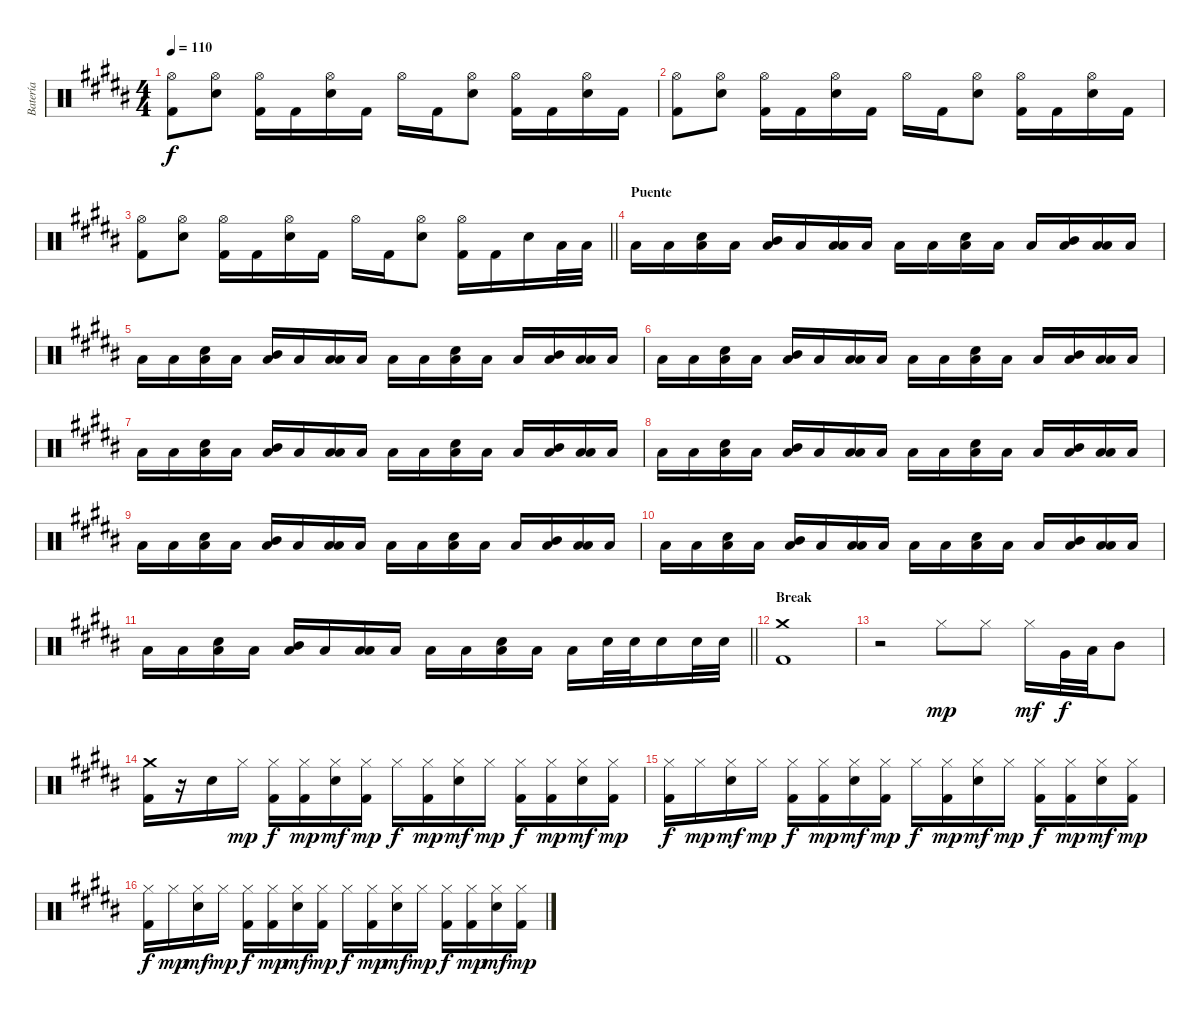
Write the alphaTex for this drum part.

\track ("Batería" "Batería") {instrument percussion}
\staff {score}
\articulation defaults
\ts (4 4)
\tempo 110
\clef neutral
\ks b
("Hi-Hat (open)" "Kick (hit) 2").8{dy f} ("Hi-Hat (open)" "Electric Snare (hit)").8 ("Hi-Hat (open)" "Kick (hit) 2").16 "Kick (hit) 2".16 ("Hi-Hat (open)" "Electric Snare (hit)").16 "Kick (hit) 2".16 "Hi-Hat (open)".16 "Kick (hit) 2".16 ("Hi-Hat (open)" "Electric Snare (hit)").8 ("Hi-Hat (open)" "Kick (hit) 2").16 "Kick (hit) 2".16 ("Hi-Hat (open)" "Electric Snare (hit)").16 "Kick (hit) 2".16 |
("Hi-Hat (open)" "Kick (hit) 2").8 ("Hi-Hat (open)" "Electric Snare (hit)").8 ("Hi-Hat (open)" "Kick (hit) 2").16 "Kick (hit) 2".16 ("Hi-Hat (open)" "Electric Snare (hit)").16 "Kick (hit) 2".16 "Hi-Hat (open)".16 "Kick (hit) 2".16 ("Hi-Hat (open)" "Electric Snare (hit)").8 ("Hi-Hat (open)" "Kick (hit) 2").16 "Kick (hit) 2".16 ("Hi-Hat (open)" "Electric Snare (hit)").16 "Kick (hit) 2".16 |
\barLineRight lightlight
("Hi-Hat (open)" "Kick (hit) 2").8 ("Hi-Hat (open)" "Electric Snare (hit)").8 ("Hi-Hat (open)" "Kick (hit) 2").16 "Kick (hit) 2".16 ("Hi-Hat (open)" "Electric Snare (hit)").16 "Kick (hit) 2".16 "Hi-Hat (open)".16 "Kick (hit) 2".16 ("Hi-Hat (open)" "Electric Snare (hit)").8 ("Hi-Hat (open)" "Kick (hit) 2").16 "Kick (hit) 2".16 "Electric Snare (hit)".16 "Low Floor Tom (hit)".32 "Low Floor Tom (hit)".32 |
\section ("" "Puente")
"Low Floor Tom (hit)".16 "Low Floor Tom (hit)".16 ("Electric Snare (hit)" "Low Floor Tom (hit)").16 "Low Floor Tom (hit)".16 ("Mid Tom (hit)" "Low Floor Tom (hit)").16 "Low Floor Tom (hit)".16 ("Low Tom (hit)" "Low Floor Tom (hit)").16 "Low Floor Tom (hit)".16 "Low Floor Tom (hit)".16 "Low Floor Tom (hit)".16 ("Electric Snare (hit)" "Low Floor Tom (hit)").16 "Low Floor Tom (hit)".16 "Low Floor Tom (hit)".16 ("Mid Tom (hit)" "Low Floor Tom (hit)").16 ("Low Tom (hit)" "Low Floor Tom (hit)").16 "Low Floor Tom (hit)".16 |
"Low Floor Tom (hit)".16 "Low Floor Tom (hit)".16 ("Electric Snare (hit)" "Low Floor Tom (hit)").16 "Low Floor Tom (hit)".16 ("Mid Tom (hit)" "Low Floor Tom (hit)").16 "Low Floor Tom (hit)".16 ("Low Tom (hit)" "Low Floor Tom (hit)").16 "Low Floor Tom (hit)".16 "Low Floor Tom (hit)".16 "Low Floor Tom (hit)".16 ("Electric Snare (hit)" "Low Floor Tom (hit)").16 "Low Floor Tom (hit)".16 "Low Floor Tom (hit)".16 ("Mid Tom (hit)" "Low Floor Tom (hit)").16 ("Low Tom (hit)" "Low Floor Tom (hit)").16 "Low Floor Tom (hit)".16 |
"Low Floor Tom (hit)".16 "Low Floor Tom (hit)".16 ("Electric Snare (hit)" "Low Floor Tom (hit)").16 "Low Floor Tom (hit)".16 ("Mid Tom (hit)" "Low Floor Tom (hit)").16 "Low Floor Tom (hit)".16 ("Low Tom (hit)" "Low Floor Tom (hit)").16 "Low Floor Tom (hit)".16 "Low Floor Tom (hit)".16 "Low Floor Tom (hit)".16 ("Electric Snare (hit)" "Low Floor Tom (hit)").16 "Low Floor Tom (hit)".16 "Low Floor Tom (hit)".16 ("Mid Tom (hit)" "Low Floor Tom (hit)").16 ("Low Tom (hit)" "Low Floor Tom (hit)").16 "Low Floor Tom (hit)".16 |
"Low Floor Tom (hit)".16 "Low Floor Tom (hit)".16 ("Electric Snare (hit)" "Low Floor Tom (hit)").16 "Low Floor Tom (hit)".16 ("Mid Tom (hit)" "Low Floor Tom (hit)").16 "Low Floor Tom (hit)".16 ("Low Tom (hit)" "Low Floor Tom (hit)").16 "Low Floor Tom (hit)".16 "Low Floor Tom (hit)".16 "Low Floor Tom (hit)".16 ("Electric Snare (hit)" "Low Floor Tom (hit)").16 "Low Floor Tom (hit)".16 "Low Floor Tom (hit)".16 ("Mid Tom (hit)" "Low Floor Tom (hit)").16 ("Low Tom (hit)" "Low Floor Tom (hit)").16 "Low Floor Tom (hit)".16 |
"Low Floor Tom (hit)".16 "Low Floor Tom (hit)".16 ("Electric Snare (hit)" "Low Floor Tom (hit)").16 "Low Floor Tom (hit)".16 ("Mid Tom (hit)" "Low Floor Tom (hit)").16 "Low Floor Tom (hit)".16 ("Low Tom (hit)" "Low Floor Tom (hit)").16 "Low Floor Tom (hit)".16 "Low Floor Tom (hit)".16 "Low Floor Tom (hit)".16 ("Electric Snare (hit)" "Low Floor Tom (hit)").16 "Low Floor Tom (hit)".16 "Low Floor Tom (hit)".16 ("Mid Tom (hit)" "Low Floor Tom (hit)").16 ("Low Tom (hit)" "Low Floor Tom (hit)").16 "Low Floor Tom (hit)".16 |
"Low Floor Tom (hit)".16 "Low Floor Tom (hit)".16 ("Electric Snare (hit)" "Low Floor Tom (hit)").16 "Low Floor Tom (hit)".16 ("Mid Tom (hit)" "Low Floor Tom (hit)").16 "Low Floor Tom (hit)".16 ("Low Tom (hit)" "Low Floor Tom (hit)").16 "Low Floor Tom (hit)".16 "Low Floor Tom (hit)".16 "Low Floor Tom (hit)".16 ("Electric Snare (hit)" "Low Floor Tom (hit)").16 "Low Floor Tom (hit)".16 "Low Floor Tom (hit)".16 ("Mid Tom (hit)" "Low Floor Tom (hit)").16 ("Low Tom (hit)" "Low Floor Tom (hit)").16 "Low Floor Tom (hit)".16 |
"Low Floor Tom (hit)".16 "Low Floor Tom (hit)".16 ("Electric Snare (hit)" "Low Floor Tom (hit)").16 "Low Floor Tom (hit)".16 ("Mid Tom (hit)" "Low Floor Tom (hit)").16 "Low Floor Tom (hit)".16 ("Low Tom (hit)" "Low Floor Tom (hit)").16 "Low Floor Tom (hit)".16 "Low Floor Tom (hit)".16 "Low Floor Tom (hit)".16 ("Electric Snare (hit)" "Low Floor Tom (hit)").16 "Low Floor Tom (hit)".16 "Low Floor Tom (hit)".16 ("Mid Tom (hit)" "Low Floor Tom (hit)").16 ("Low Tom (hit)" "Low Floor Tom (hit)").16 "Low Floor Tom (hit)".16 |
\barLineRight lightlight "Low Floor Tom (hit)".16 "Low Floor Tom (hit)".16
("Electric Snare (hit)" "Low Floor Tom (hit)").16 "Low Floor Tom (hit)".16 ("Mid Tom (hit)" "Low Floor Tom (hit)").16 "Low Floor Tom (hit)".16 ("Low Tom (hit)" "Low Floor Tom (hit)").16 "Low Floor Tom (hit)".16 "Low Floor Tom (hit)".16 "Low Floor Tom (hit)".16 ("Electric Snare (hit)" "Low Floor Tom (hit)").16 "Low Floor Tom (hit)".16 "Low Floor Tom (hit)".16 "Electric Snare (hit)".32 "Electric Snare (hit)".32 "Electric Snare (hit)".16 "Electric Snare (hit)".32 "Electric Snare (hit)".32 |
\section ("" "Break")
("Crash medium (hit)" "Kick (hit) 2").1 |
r.2 "Hi-Hat (closed)".8{dy mp} "Hi-Hat (closed)".8 "Hi-Hat (closed)".16{dy mf} "Very Low Tom (hit)".32{dy f} "Low Tom (hit)".32 "Mid Tom (hit)".8 |
("Crash medium (hit)" "Kick (hit) 2").16 r.16 "Electric Snare (hit)".16 "Hi-Hat (closed)".16{dy mp} ("Hi-Hat (closed)" "Kick (hit) 2").16{dy f} ("Hi-Hat (closed)" "Kick (hit) 2").16{dy mp} ("Hi-Hat (closed)" "Electric Snare (hit)").16{dy mf} ("Hi-Hat (closed)" "Kick (hit) 2").16{dy mp} "Hi-Hat (closed)".16{dy f} ("Hi-Hat (closed)" "Kick (hit) 2").16{dy mp} ("Hi-Hat (closed)" "Electric Snare (hit)").16{dy mf} "Hi-Hat (closed)".16{dy mp} ("Hi-Hat (closed)" "Kick (hit) 2").16{dy f} ("Hi-Hat (closed)" "Kick (hit) 2").16{dy mp} ("Hi-Hat (closed)" "Electric Snare (hit)").16{dy mf} ("Hi-Hat (closed)" "Kick (hit) 2").16{dy mp} |
("Hi-Hat (closed)" "Kick (hit) 2").16{dy f} "Hi-Hat (closed)".16{dy mp} ("Hi-Hat (closed)" "Electric Snare (hit)").16{dy mf} "Hi-Hat (closed)".16{dy mp} ("Hi-Hat (closed)" "Kick (hit) 2").16{dy f} ("Hi-Hat (closed)" "Kick (hit) 2").16{dy mp} ("Hi-Hat (closed)" "Electric Snare (hit)").16{dy mf} ("Hi-Hat (closed)" "Kick (hit) 2").16{dy mp} "Hi-Hat (closed)".16{dy f} ("Hi-Hat (closed)" "Kick (hit) 2").16{dy mp} ("Hi-Hat (closed)" "Electric Snare (hit)").16{dy mf} "Hi-Hat (closed)".16{dy mp} ("Hi-Hat (closed)" "Kick (hit) 2").16{dy f} ("Hi-Hat (closed)" "Kick (hit) 2").16{dy mp} ("Hi-Hat (closed)" "Electric Snare (hit)").16{dy mf} ("Hi-Hat (closed)" "Kick (hit) 2").16{dy mp} |
("Hi-Hat (closed)" "Kick (hit) 2").16{dy f} "Hi-Hat (closed)".16{dy mp} ("Hi-Hat (closed)" "Electric Snare (hit)").16{dy mf} "Hi-Hat (closed)".16{dy mp} ("Hi-Hat (closed)" "Kick (hit) 2").16{dy f} ("Hi-Hat (closed)" "Kick (hit) 2").16{dy mp} ("Hi-Hat (closed)" "Electric Snare (hit)").16{dy mf} ("Hi-Hat (closed)" "Kick (hit) 2").16{dy mp} "Hi-Hat (closed)".16{dy f} ("Hi-Hat (closed)" "Kick (hit) 2").16{dy mp} ("Hi-Hat (closed)" "Electric Snare (hit)").16{dy mf} "Hi-Hat (closed)".16{dy mp} ("Hi-Hat (closed)" "Kick (hit) 2").16{dy f} ("Hi-Hat (closed)" "Kick (hit) 2").16{dy mp} ("Hi-Hat (closed)" "Electric Snare (hit)").16{dy mf} ("Hi-Hat (closed)" "Kick (hit) 2").16{dy mp}
